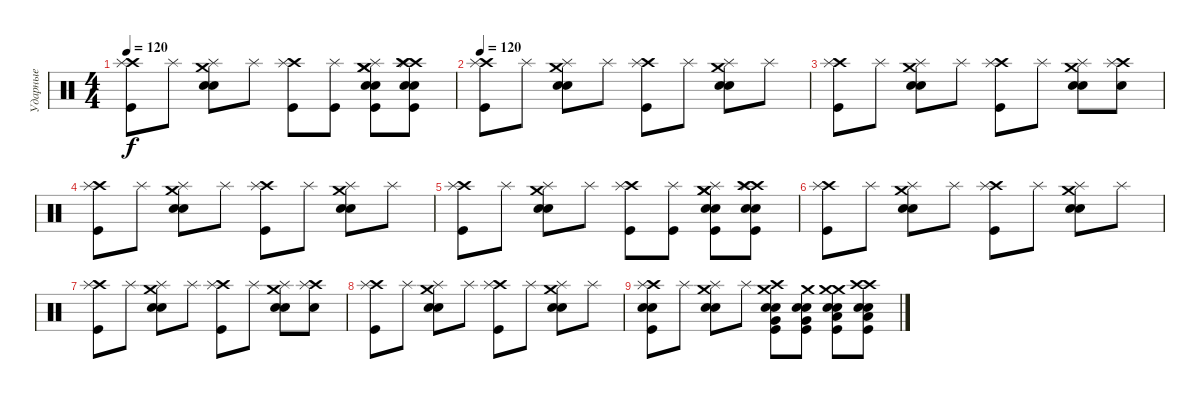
\track ("Ударные" "Ударные") {instrument percussion}
\staff {score}
\articulation defaults
\ts (4 4)
\tempo 120
\clef neutral
\ks c
("Crash high (hit)" "Splash (hit)" "Kick (hit)").8{dy f} "Splash (hit)".8 ("Crash medium (hit)" "Splash (hit)" "Electric Snare (hit)" "Electric Snare (hit)").8 "Splash (hit)".8 ("Crash high (hit)" "Splash (hit)" "Kick (hit)").8 ("Splash (hit)" "Kick (hit)").8 ("Crash medium (hit)" "Splash (hit)" "Crash medium (hit)" "Electric Snare (hit)" "Electric Snare (hit)" "Kick (hit)").8 ("Crash high (hit)" "Splash (hit)" "Crash high (hit)" "Electric Snare (hit)" "Electric Snare (hit)" "Kick (hit)").8 |
\tempo 120
("Crash high (hit)" "Splash (hit)" "Kick (hit)").8 "Splash (hit)".8 ("Crash medium (hit)" "Splash (hit)" "Electric Snare (hit)" "Electric Snare (hit)").8 "Splash (hit)".8 ("Crash high (hit)" "Splash (hit)" "Kick (hit)").8 "Splash (hit)".8 ("Crash medium (hit)" "Splash (hit)" "Electric Snare (hit)" "Electric Snare (hit)").8 "Splash (hit)".8 |
("Crash high (hit)" "Splash (hit)" "Kick (hit)").8 "Splash (hit)".8 ("Crash medium (hit)" "Splash (hit)" "Electric Snare (hit)" "Electric Snare (hit)").8 "Splash (hit)".8 ("Crash high (hit)" "Splash (hit)" "Kick (hit)").8 "Splash (hit)".8 ("Crash medium (hit)" "Splash (hit)" "Electric Snare (hit)" "Electric Snare (hit)").8 ("Crash high (hit)" "Splash (hit)" "Electric Snare (hit)").8 |
("Crash high (hit)" "Splash (hit)" "Kick (hit)").8 "Splash (hit)".8 ("Crash medium (hit)" "Splash (hit)" "Electric Snare (hit)" "Electric Snare (hit)").8 "Splash (hit)".8 ("Crash high (hit)" "Splash (hit)" "Kick (hit)").8 "Splash (hit)".8 ("Crash medium (hit)" "Splash (hit)" "Electric Snare (hit)" "Electric Snare (hit)").8 "Splash (hit)".8 |
("Crash high (hit)" "Splash (hit)" "Kick (hit)").8 "Splash (hit)".8 ("Crash medium (hit)" "Splash (hit)" "Electric Snare (hit)" "Electric Snare (hit)").8 "Splash (hit)".8 ("Crash high (hit)" "Splash (hit)" "Kick (hit)").8 ("Splash (hit)" "Kick (hit)").8 ("Crash medium (hit)" "Splash (hit)" "Crash medium (hit)" "Electric Snare (hit)" "Electric Snare (hit)" "Kick (hit)").8 ("Crash high (hit)" "Splash (hit)" "Crash high (hit)" "Electric Snare (hit)" "Electric Snare (hit)" "Kick (hit)").8 |
("Crash high (hit)" "Splash (hit)" "Kick (hit)").8 "Splash (hit)".8 ("Crash medium (hit)" "Splash (hit)" "Electric Snare (hit)" "Electric Snare (hit)").8 "Splash (hit)".8 ("Crash high (hit)" "Splash (hit)" "Kick (hit)").8 "Splash (hit)".8 ("Crash medium (hit)" "Splash (hit)" "Electric Snare (hit)" "Electric Snare (hit)").8 "Splash (hit)".8 |
("Crash high (hit)" "Splash (hit)" "Kick (hit)").8 "Splash (hit)".8 ("Crash medium (hit)" "Splash (hit)" "Electric Snare (hit)" "Electric Snare (hit)").8 "Splash (hit)".8 ("Crash high (hit)" "Splash (hit)" "Kick (hit)").8 "Splash (hit)".8 ("Crash medium (hit)" "Splash (hit)" "Electric Snare (hit)" "Electric Snare (hit)").8 ("Crash high (hit)" "Splash (hit)" "Electric Snare (hit)").8 |
("Crash high (hit)" "Splash (hit)" "Kick (hit)").8 "Splash (hit)".8 ("Crash medium (hit)" "Splash (hit)" "Electric Snare (hit)" "Electric Snare (hit)").8 "Splash (hit)".8 ("Crash high (hit)" "Splash (hit)" "Kick (hit)").8 "Splash (hit)".8 ("Crash medium (hit)" "Splash (hit)" "Electric Snare (hit)" "Electric Snare (hit)").8 "Splash (hit)".8 |
("Crash high (hit)" "Splash (hit)" "Electric Snare (hit)" "Electric Snare (hit)" "Kick (hit)").8 "Splash (hit)".8 ("Crash medium (hit)" "Splash (hit)" "Electric Snare (hit)" "Electric Snare (hit)").8 "Splash (hit)".8 ("Crash high (hit)" "Very Low Tom (hit)" "Crash medium (hit)" "Electric Snare (hit)" "Electric Snare (hit)" "Kick (hit)").8 ("Very Low Tom (hit)" "Crash medium (hit)" "Electric Snare (hit)" "Electric Snare (hit)" "Kick (hit)").8 ("Crash medium (hit)" "Low Floor Tom (hit)" "Crash medium (hit)" "Electric Snare (hit)" "Electric Snare (hit)" "Kick (hit)").8 ("Crash high (hit)" "Low Floor Tom (hit)" "Crash high (hit)" "Electric Snare (hit)" "Electric Snare (hit)" "Kick (hit)").8
